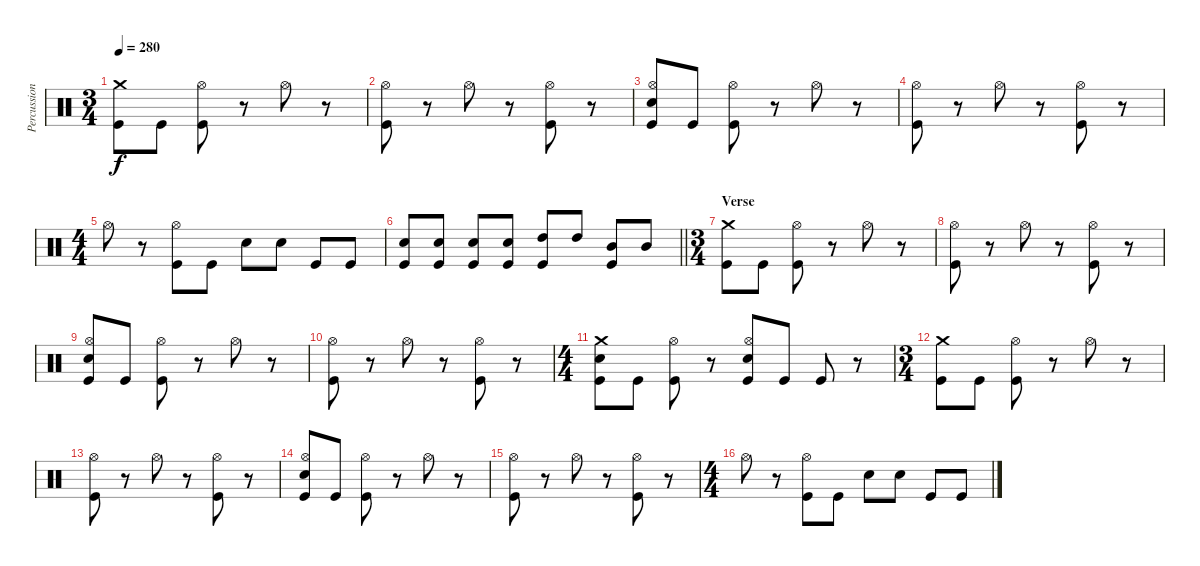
\track ("Percussion" "Percussion") {instrument percussion}
\staff {score}
\articulation defaults
\ts (3 4)
\tempo 280
\clef neutral
\ks c
("Crash medium (hit)" "Kick (hit)").8{dy f} "Kick (hit)".8 ("Hi-Hat (open)" "Kick (hit)").8 r.8 "Hi-Hat (open)".8 r.8 |
("Hi-Hat (open)" "Kick (hit)").8 r.8 "Hi-Hat (open)".8 r.8 ("Hi-Hat (open)" "Kick (hit)").8 r.8 |
("Hi-Hat (open)" "Electric Snare (hit)" "Kick (hit)").8 "Kick (hit)".8 ("Hi-Hat (open)" "Kick (hit)").8 r.8 "Hi-Hat (open)".8 r.8 |
("Hi-Hat (open)" "Kick (hit)").8 r.8 "Hi-Hat (open)".8 r.8 ("Hi-Hat (open)" "Kick (hit)").8 r.8 |
\ts (4 4)
"Hi-Hat (open)".8 r.8 ("Hi-Hat (open)" "Kick (hit)").8 "Kick (hit)".8 "Electric Snare (hit)".8 "Electric Snare (hit)".8 "Kick (hit)".8 "Kick (hit)".8 |
\barLineRight lightlight
("Electric Snare (hit)" "Kick (hit)").8 ("Electric Snare (hit)" "Kick (hit)").8 ("Electric Snare (hit)" "Kick (hit)").8 ("Electric Snare (hit)" "Kick (hit)").8 ("High Tom (hit)" "Kick (hit)").8 "High Tom (hit)".8 ("Mid Tom (hit)" "Kick (hit)").8 "Mid Tom (hit)".8 |
\ts (3 4)
\section ("" "Verse")
("Crash medium (hit)" "Kick (hit)").8 "Kick (hit)".8 ("Hi-Hat (open)" "Kick (hit)").8 r.8 "Hi-Hat (open)".8 r.8 |
("Hi-Hat (open)" "Kick (hit)").8 r.8 "Hi-Hat (open)".8 r.8 ("Hi-Hat (open)" "Kick (hit)").8 r.8 |
("Hi-Hat (open)" "Electric Snare (hit)" "Kick (hit)").8 "Kick (hit)".8 ("Hi-Hat (open)" "Kick (hit)").8 r.8 "Hi-Hat (open)".8 r.8 |
("Hi-Hat (open)" "Kick (hit)").8 r.8 "Hi-Hat (open)".8 r.8 ("Hi-Hat (open)" "Kick (hit)").8 r.8 |
\ts (4 4)
("Crash medium (hit)" "Electric Snare (hit)" "Kick (hit)").8 "Kick (hit)".8 ("Hi-Hat (open)" "Kick (hit)").8 r.8 ("Hi-Hat (open)" "Electric Snare (hit)" "Kick (hit)").8 "Kick (hit)".8 "Kick (hit)".8 r.8 |
\ts (3 4)
("Crash medium (hit)" "Kick (hit)").8 "Kick (hit)".8 ("Hi-Hat (open)" "Kick (hit)").8 r.8 "Hi-Hat (open)".8 r.8 |
("Hi-Hat (open)" "Kick (hit)").8 r.8 "Hi-Hat (open)".8 r.8 ("Hi-Hat (open)" "Kick (hit)").8 r.8 |
("Hi-Hat (open)" "Electric Snare (hit)" "Kick (hit)").8 "Kick (hit)".8 ("Hi-Hat (open)" "Kick (hit)").8 r.8 "Hi-Hat (open)".8 r.8 |
("Hi-Hat (open)" "Kick (hit)").8 r.8 "Hi-Hat (open)".8 r.8 ("Hi-Hat (open)" "Kick (hit)").8 r.8 |
\ts (4 4)
"Hi-Hat (open)".8 r.8 ("Hi-Hat (open)" "Kick (hit)").8 "Kick (hit)".8 "Electric Snare (hit)".8 "Electric Snare (hit)".8 "Kick (hit)".8 "Kick (hit)".8
